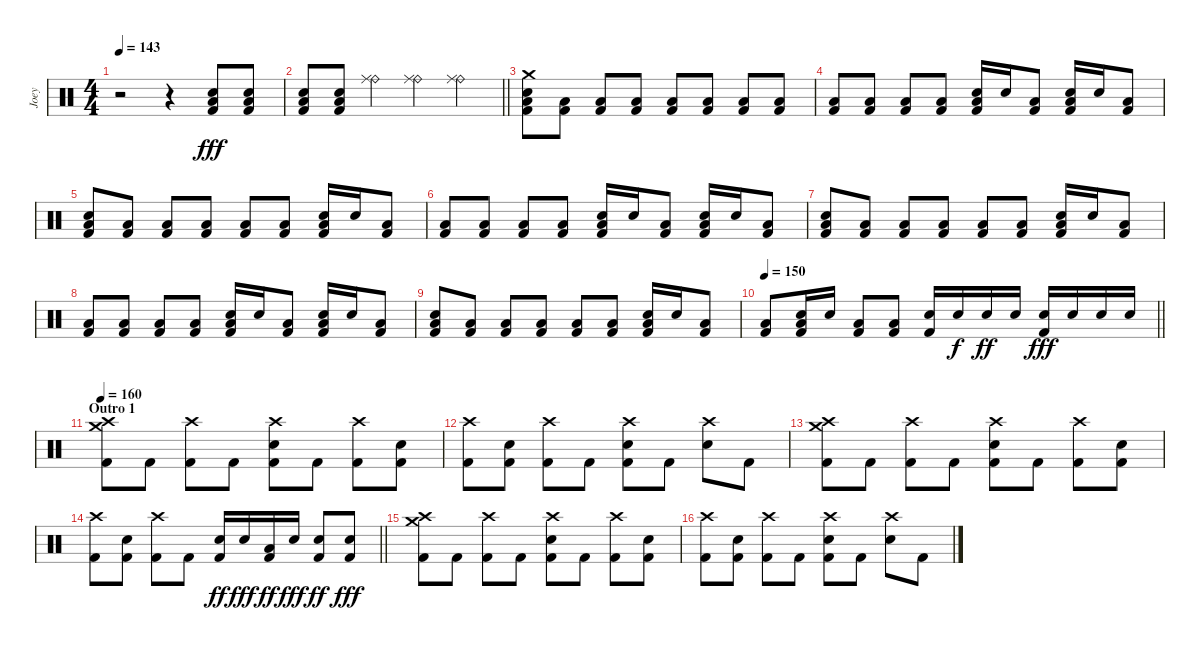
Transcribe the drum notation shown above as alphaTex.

\track ("Joey" "Joey") {instrument percussion}
\staff {score}
\articulation defaults
\ts (4 4)
\tempo 143
\clef neutral
\ks c
r.2{dy fff} r.4 ("Low Tom (hit)" "Electric Snare (hit)" "Kick (hit) 2").8 ("Low Tom (hit)" "Electric Snare (hit)" "Kick (hit) 2").8 |
\barLineRight lightlight
("Low Tom (hit)" "Electric Snare (hit)" "Kick (hit) 2").8 ("Low Tom (hit)" "Electric Snare (hit)" "Kick (hit) 2").8 ("Ride (bell)" "Ride (middle)").4 ("Ride (bell)" "Ride (middle)").4 ("Ride (bell)" "Ride (middle)").4 |
\section ("" "")
("Crash medium (hit)" "Electric Snare (hit)" "Low Tom (hit)" "Kick (hit) 2").8 ("Low Tom (hit)" "Kick (hit) 2").8 ("Low Tom (hit)" "Kick (hit) 2").8 ("Low Tom (hit)" "Kick (hit) 2").8 ("Low Tom (hit)" "Kick (hit) 2").8 ("Low Tom (hit)" "Kick (hit) 2").8 ("Low Tom (hit)" "Kick (hit) 2").8 ("Low Tom (hit)" "Kick (hit) 2").8 |
("Low Tom (hit)" "Kick (hit) 2").8 ("Low Tom (hit)" "Kick (hit) 2").8 ("Low Tom (hit)" "Kick (hit) 2").8 ("Low Tom (hit)" "Kick (hit) 2").8 ("Electric Snare (hit)" "Low Tom (hit)" "Kick (hit) 2").16 "Electric Snare (hit)".16 ("Low Tom (hit)" "Kick (hit) 2").8 ("Electric Snare (hit)" "Low Tom (hit)" "Kick (hit) 2").16 "Electric Snare (hit)".16 ("Low Tom (hit)" "Kick (hit) 2").8 |
("Electric Snare (hit)" "Low Tom (hit)" "Kick (hit) 2").8 ("Low Tom (hit)" "Kick (hit) 2").8 ("Low Tom (hit)" "Kick (hit) 2").8 ("Low Tom (hit)" "Kick (hit) 2").8 ("Low Tom (hit)" "Kick (hit) 2").8 ("Low Tom (hit)" "Kick (hit) 2").8 ("Electric Snare (hit)" "Low Tom (hit)" "Kick (hit) 2").16 "Electric Snare (hit)".16 ("Low Tom (hit)" "Kick (hit) 2").8 |
("Low Tom (hit)" "Kick (hit) 2").8 ("Low Tom (hit)" "Kick (hit) 2").8 ("Low Tom (hit)" "Kick (hit) 2").8 ("Low Tom (hit)" "Kick (hit) 2").8 ("Electric Snare (hit)" "Low Tom (hit)" "Kick (hit) 2").16 "Electric Snare (hit)".16 ("Low Tom (hit)" "Kick (hit) 2").8 ("Electric Snare (hit)" "Low Tom (hit)" "Kick (hit) 2").16 "Electric Snare (hit)".16 ("Low Tom (hit)" "Kick (hit) 2").8 |
("Electric Snare (hit)" "Low Tom (hit)" "Kick (hit) 2").8 ("Low Tom (hit)" "Kick (hit) 2").8 ("Low Tom (hit)" "Kick (hit) 2").8 ("Low Tom (hit)" "Kick (hit) 2").8 ("Low Tom (hit)" "Kick (hit) 2").8 ("Low Tom (hit)" "Kick (hit) 2").8 ("Electric Snare (hit)" "Low Tom (hit)" "Kick (hit) 2").16 "Electric Snare (hit)".16 ("Low Tom (hit)" "Kick (hit) 2").8 |
("Low Tom (hit)" "Kick (hit) 2").8 ("Low Tom (hit)" "Kick (hit) 2").8 ("Low Tom (hit)" "Kick (hit) 2").8 ("Low Tom (hit)" "Kick (hit) 2").8 ("Electric Snare (hit)" "Low Tom (hit)" "Kick (hit) 2").16 "Electric Snare (hit)".16 ("Low Tom (hit)" "Kick (hit) 2").8 ("Electric Snare (hit)" "Low Tom (hit)" "Kick (hit) 2").16 "Electric Snare (hit)".16 ("Low Tom (hit)" "Kick (hit) 2").8 |
("Electric Snare (hit)" "Low Tom (hit)" "Kick (hit) 2").8 ("Low Tom (hit)" "Kick (hit) 2").8 ("Low Tom (hit)" "Kick (hit) 2").8 ("Low Tom (hit)" "Kick (hit) 2").8 ("Low Tom (hit)" "Kick (hit) 2").8 ("Low Tom (hit)" "Kick (hit) 2").8 ("Electric Snare (hit)" "Low Tom (hit)" "Kick (hit) 2").16 "Electric Snare (hit)".16 ("Low Tom (hit)" "Kick (hit) 2").8 |
\tempo 150
\barLineRight lightlight
("Low Tom (hit)" "Kick (hit) 2").8 ("Electric Snare (hit)" "Low Tom (hit)" "Kick (hit) 2").16 "Electric Snare (hit)".16 ("Low Tom (hit)" "Kick (hit) 2").8 ("Low Tom (hit)" "Kick (hit) 2").8 ("Electric Snare (hit)" "Kick (hit) 2").16 "Electric Snare (hit)".16{dy f} "Electric Snare (hit)".16{dy ff} "Electric Snare (hit)".16 ("Electric Snare (hit)" "Kick (hit) 2").16{dy fff} "Electric Snare (hit)".16 "Electric Snare (hit)".16 "Electric Snare (hit)".16 |
\section ("" "Outro 1")
\tempo 160
("Crash medium (hit)" "Crash high (hit)" "Kick (hit) 2").8 "Kick (hit) 2".8 ("Crash high (hit)" "Kick (hit) 2").8 "Kick (hit) 2".8 ("Crash high (hit)" "Electric Snare (hit)" "Kick (hit) 2").8 "Kick (hit) 2".8 ("Crash high (hit)" "Kick (hit) 2").8 ("Electric Snare (hit)" "Kick (hit) 2").8 |
("Crash high (hit)" "Kick (hit) 2").8 ("Electric Snare (hit)" "Kick (hit) 2").8 ("Crash high (hit)" "Kick (hit) 2").8 "Kick (hit) 2".8 ("Crash high (hit)" "Electric Snare (hit)" "Kick (hit) 2").8 "Kick (hit) 2".8 ("Crash high (hit)" "Electric Snare (hit)").8 "Kick (hit) 2".8 |
("Crash medium (hit)" "Crash high (hit)" "Kick (hit) 2").8 "Kick (hit) 2".8 ("Crash high (hit)" "Kick (hit) 2").8 "Kick (hit) 2".8 ("Crash high (hit)" "Electric Snare (hit)" "Kick (hit) 2").8 "Kick (hit) 2".8 ("Crash high (hit)" "Kick (hit) 2").8 ("Electric Snare (hit)" "Kick (hit) 2").8 |
\barLineRight lightlight
("Crash high (hit)" "Kick (hit) 2").8 ("Electric Snare (hit)" "Kick (hit) 2").8 ("Crash high (hit)" "Kick (hit) 2").8 "Kick (hit) 2".8 ("Electric Snare (hit)" "Kick (hit) 2").16{dy ff} "Electric Snare (hit)".16{dy fff} ("Low Tom (hit)" "Kick (hit) 2").16{dy ff} "Electric Snare (hit)".16{dy fff} ("Electric Snare (hit)" "Kick (hit) 2").8{dy ff} ("Electric Snare (hit)" "Kick (hit) 2").8{dy fff} |
("Crash medium (hit)" "Crash high (hit)" "Kick (hit) 2").8 "Kick (hit) 2".8 ("Crash high (hit)" "Kick (hit) 2").8 "Kick (hit) 2".8 ("Crash high (hit)" "Electric Snare (hit)" "Kick (hit) 2").8 "Kick (hit) 2".8 ("Crash high (hit)" "Kick (hit) 2").8 ("Electric Snare (hit)" "Kick (hit) 2").8 |
("Crash high (hit)" "Kick (hit) 2").8 ("Electric Snare (hit)" "Kick (hit) 2").8 ("Crash high (hit)" "Kick (hit) 2").8 "Kick (hit) 2".8 ("Crash high (hit)" "Electric Snare (hit)" "Kick (hit) 2").8 "Kick (hit) 2".8 ("Crash high (hit)" "Electric Snare (hit)").8 "Kick (hit) 2".8
